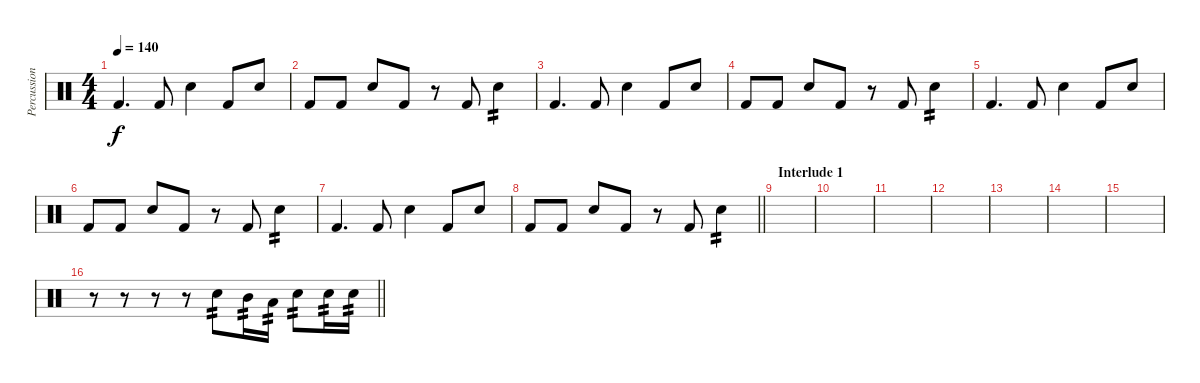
\track ("Percussion" "Percussion") {instrument percussion}
\staff {score}
\articulation defaults
\ts (4 4)
\tempo 140
\clef neutral
\ks c "Kick (hit) 2".4{d dy f} "Kick (hit) 2".8 "Electric Snare (hit)".4 "Kick (hit) 2".8 "Electric Snare (hit)".8
|
"Kick (hit) 2".8 "Kick (hit) 2".8 "Electric Snare (hit)".8 "Kick (hit) 2".8 r.8 "Kick (hit) 2".8 "Electric Snare (hit)".4{tp 2} |
"Kick (hit) 2".4{d} "Kick (hit) 2".8 "Electric Snare (hit)".4 "Kick (hit) 2".8 "Electric Snare (hit)".8 |
"Kick (hit) 2".8 "Kick (hit) 2".8 "Electric Snare (hit)".8 "Kick (hit) 2".8 r.8 "Kick (hit) 2".8 "Electric Snare (hit)".4{tp 2} |
"Kick (hit) 2".4{d} "Kick (hit) 2".8 "Electric Snare (hit)".4 "Kick (hit) 2".8 "Electric Snare (hit)".8 |
"Kick (hit) 2".8 "Kick (hit) 2".8 "Electric Snare (hit)".8 "Kick (hit) 2".8 r.8 "Kick (hit) 2".8 "Electric Snare (hit)".4{tp 2} |
"Kick (hit) 2".4{d} "Kick (hit) 2".8 "Electric Snare (hit)".4 "Kick (hit) 2".8 "Electric Snare (hit)".8 |
\barLineRight lightlight "Kick (hit) 2".8 "Kick (hit) 2".8 "Electric Snare (hit)".8 "Kick (hit) 2".8
r.8 "Kick (hit) 2".8 "Electric Snare (hit)".4{tp 2} |
\section ("" "Interlude 1")
|
|
|
|
|
|
|
\barLineRight lightlight
r.8 r.8 r.8 r.8 "Electric Snare (hit)".8{tp 2} "Mid Tom (hit)".16{tp 2} "Low Tom (hit)".16{tp 2} "Electric Snare (hit)".8{tp 2} "Electric Snare (hit)".16{tp 2} "Electric Snare (hit)".16{tp 2}
